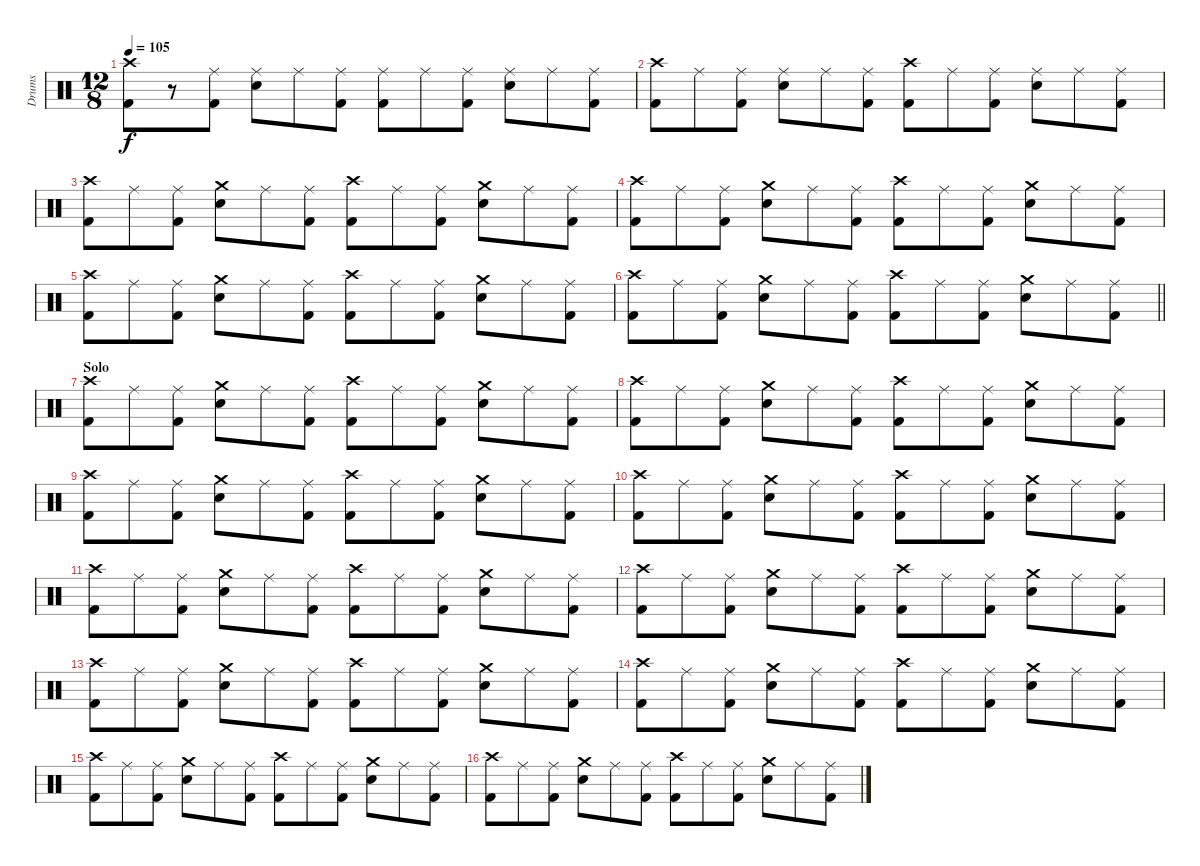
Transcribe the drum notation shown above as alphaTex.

\track ("Drums" "Drums") {instrument percussion}
\staff {score}
\articulation defaults
\ts (12 8)
\tempo 105
\clef neutral
\ks c
("Crash high (hit)" "Kick (hit) 2").8{dy f} r.8 ("Ride (middle)" "Kick (hit) 2").8 ("Ride (middle)" "Snare (hit) 2").8 "Ride (middle)".8 ("Ride (middle)" "Kick (hit) 2").8 ("Ride (middle)" "Kick (hit) 2").8 "Ride (middle)".8 ("Ride (middle)" "Kick (hit) 2").8 ("Ride (middle)" "Snare (hit) 2").8 "Ride (middle)".8 ("Ride (middle)" "Kick (hit) 2").8 |
("Crash high (hit)" "Kick (hit) 2").8 "Ride (middle)".8 ("Ride (middle)" "Kick (hit) 2").8 ("Ride (middle)" "Snare (hit) 2").8 "Ride (middle)".8 ("Ride (middle)" "Kick (hit) 2").8 ("Crash high (hit)" "Kick (hit) 2").8 "Ride (middle)".8 ("Ride (middle)" "Kick (hit) 2").8 ("Ride (middle)" "Snare (hit) 2").8 "Ride (middle)".8 ("Ride (middle)" "Kick (hit) 2").8 |
("Crash high (hit)" "Kick (hit) 2").8 "Ride (middle)".8 ("Ride (middle)" "Kick (hit) 2").8 ("Crash medium (hit)" "Snare (hit) 2").8 "Ride (middle)".8 ("Ride (middle)" "Kick (hit) 2").8 ("Crash high (hit)" "Kick (hit) 2").8 "Ride (middle)".8 ("Ride (middle)" "Kick (hit) 2").8 ("Crash medium (hit)" "Snare (hit) 2").8 "Ride (middle)".8 ("Ride (middle)" "Kick (hit) 2").8 |
("Crash high (hit)" "Kick (hit) 2").8 "Ride (middle)".8 ("Ride (middle)" "Kick (hit) 2").8 ("Crash medium (hit)" "Snare (hit) 2").8 "Ride (middle)".8 ("Ride (middle)" "Kick (hit) 2").8 ("Crash high (hit)" "Kick (hit) 2").8 "Ride (middle)".8 ("Ride (middle)" "Kick (hit) 2").8 ("Crash medium (hit)" "Snare (hit) 2").8 "Ride (middle)".8 ("Ride (middle)" "Kick (hit) 2").8 |
("Crash high (hit)" "Kick (hit) 2").8 "Ride (middle)".8 ("Ride (middle)" "Kick (hit) 2").8 ("Crash medium (hit)" "Snare (hit) 2").8 "Ride (middle)".8 ("Ride (middle)" "Kick (hit) 2").8 ("Crash high (hit)" "Kick (hit) 2").8 "Ride (middle)".8 ("Ride (middle)" "Kick (hit) 2").8 ("Crash medium (hit)" "Snare (hit) 2").8 "Ride (middle)".8 ("Ride (middle)" "Kick (hit) 2").8 |
\barLineRight lightlight
("Crash high (hit)" "Kick (hit) 2").8 "Ride (middle)".8 ("Ride (middle)" "Kick (hit) 2").8 ("Crash medium (hit)" "Snare (hit) 2").8 "Ride (middle)".8 ("Ride (middle)" "Kick (hit) 2").8 ("Crash high (hit)" "Kick (hit) 2").8 "Ride (middle)".8 ("Ride (middle)" "Kick (hit) 2").8 ("Crash medium (hit)" "Snare (hit) 2").8 "Ride (middle)".8 ("Ride (middle)" "Kick (hit) 2").8 |
\section ("" "Solo")
("Crash high (hit)" "Kick (hit) 2").8 "Ride (middle)".8 ("Ride (middle)" "Kick (hit) 2").8 ("Crash medium (hit)" "Snare (hit) 2").8 "Ride (middle)".8 ("Ride (middle)" "Kick (hit) 2").8 ("Crash high (hit)" "Kick (hit) 2").8 "Ride (middle)".8 ("Ride (middle)" "Kick (hit) 2").8 ("Crash medium (hit)" "Snare (hit) 2").8 "Ride (middle)".8 ("Ride (middle)" "Kick (hit) 2").8 |
("Crash high (hit)" "Kick (hit) 2").8 "Ride (middle)".8 ("Ride (middle)" "Kick (hit) 2").8 ("Crash medium (hit)" "Snare (hit) 2").8 "Ride (middle)".8 ("Ride (middle)" "Kick (hit) 2").8 ("Crash high (hit)" "Kick (hit) 2").8 "Ride (middle)".8 ("Ride (middle)" "Kick (hit) 2").8 ("Crash medium (hit)" "Snare (hit) 2").8 "Ride (middle)".8 ("Ride (middle)" "Kick (hit) 2").8 |
("Crash high (hit)" "Kick (hit) 2").8 "Ride (middle)".8 ("Ride (middle)" "Kick (hit) 2").8 ("Crash medium (hit)" "Snare (hit) 2").8 "Ride (middle)".8 ("Ride (middle)" "Kick (hit) 2").8 ("Crash high (hit)" "Kick (hit) 2").8 "Ride (middle)".8 ("Ride (middle)" "Kick (hit) 2").8 ("Crash medium (hit)" "Snare (hit) 2").8 "Ride (middle)".8 ("Ride (middle)" "Kick (hit) 2").8 |
("Crash high (hit)" "Kick (hit) 2").8 "Ride (middle)".8 ("Ride (middle)" "Kick (hit) 2").8 ("Crash medium (hit)" "Snare (hit) 2").8 "Ride (middle)".8 ("Ride (middle)" "Kick (hit) 2").8 ("Crash high (hit)" "Kick (hit) 2").8 "Ride (middle)".8 ("Ride (middle)" "Kick (hit) 2").8 ("Crash medium (hit)" "Snare (hit) 2").8 "Ride (middle)".8 ("Ride (middle)" "Kick (hit) 2").8 |
("Crash high (hit)" "Kick (hit) 2").8 "Ride (middle)".8 ("Ride (middle)" "Kick (hit) 2").8 ("Crash medium (hit)" "Snare (hit) 2").8 "Ride (middle)".8 ("Ride (middle)" "Kick (hit) 2").8 ("Crash high (hit)" "Kick (hit) 2").8 "Ride (middle)".8 ("Ride (middle)" "Kick (hit) 2").8 ("Crash medium (hit)" "Snare (hit) 2").8 "Ride (middle)".8 ("Ride (middle)" "Kick (hit) 2").8 |
("Crash high (hit)" "Kick (hit) 2").8 "Ride (middle)".8 ("Ride (middle)" "Kick (hit) 2").8 ("Crash medium (hit)" "Snare (hit) 2").8 "Ride (middle)".8 ("Ride (middle)" "Kick (hit) 2").8 ("Crash high (hit)" "Kick (hit) 2").8 "Ride (middle)".8 ("Ride (middle)" "Kick (hit) 2").8 ("Crash medium (hit)" "Snare (hit) 2").8 "Ride (middle)".8 ("Ride (middle)" "Kick (hit) 2").8 |
("Crash high (hit)" "Kick (hit) 2").8 "Ride (middle)".8 ("Ride (middle)" "Kick (hit) 2").8 ("Crash medium (hit)" "Snare (hit) 2").8 "Ride (middle)".8 ("Ride (middle)" "Kick (hit) 2").8 ("Crash high (hit)" "Kick (hit) 2").8 "Ride (middle)".8 ("Ride (middle)" "Kick (hit) 2").8 ("Crash medium (hit)" "Snare (hit) 2").8 "Ride (middle)".8 ("Ride (middle)" "Kick (hit) 2").8 |
("Crash high (hit)" "Kick (hit) 2").8 "Ride (middle)".8 ("Ride (middle)" "Kick (hit) 2").8 ("Crash medium (hit)" "Snare (hit) 2").8 "Ride (middle)".8 ("Ride (middle)" "Kick (hit) 2").8 ("Crash high (hit)" "Kick (hit) 2").8 "Ride (middle)".8 ("Ride (middle)" "Kick (hit) 2").8 ("Crash medium (hit)" "Snare (hit) 2").8 "Ride (middle)".8 ("Ride (middle)" "Kick (hit) 2").8 |
("Crash high (hit)" "Kick (hit) 2").8 "Ride (middle)".8 ("Ride (middle)" "Kick (hit) 2").8 ("Crash medium (hit)" "Snare (hit) 2").8 "Ride (middle)".8 ("Ride (middle)" "Kick (hit) 2").8 ("Crash high (hit)" "Kick (hit) 2").8 "Ride (middle)".8 ("Ride (middle)" "Kick (hit) 2").8 ("Crash medium (hit)" "Snare (hit) 2").8 "Ride (middle)".8 ("Ride (middle)" "Kick (hit) 2").8 |
("Crash high (hit)" "Kick (hit) 2").8 "Ride (middle)".8 ("Ride (middle)" "Kick (hit) 2").8 ("Crash medium (hit)" "Snare (hit) 2").8 "Ride (middle)".8 ("Ride (middle)" "Kick (hit) 2").8 ("Crash high (hit)" "Kick (hit) 2").8 "Ride (middle)".8 ("Ride (middle)" "Kick (hit) 2").8 ("Crash medium (hit)" "Snare (hit) 2").8 "Ride (middle)".8 ("Ride (middle)" "Kick (hit) 2").8
